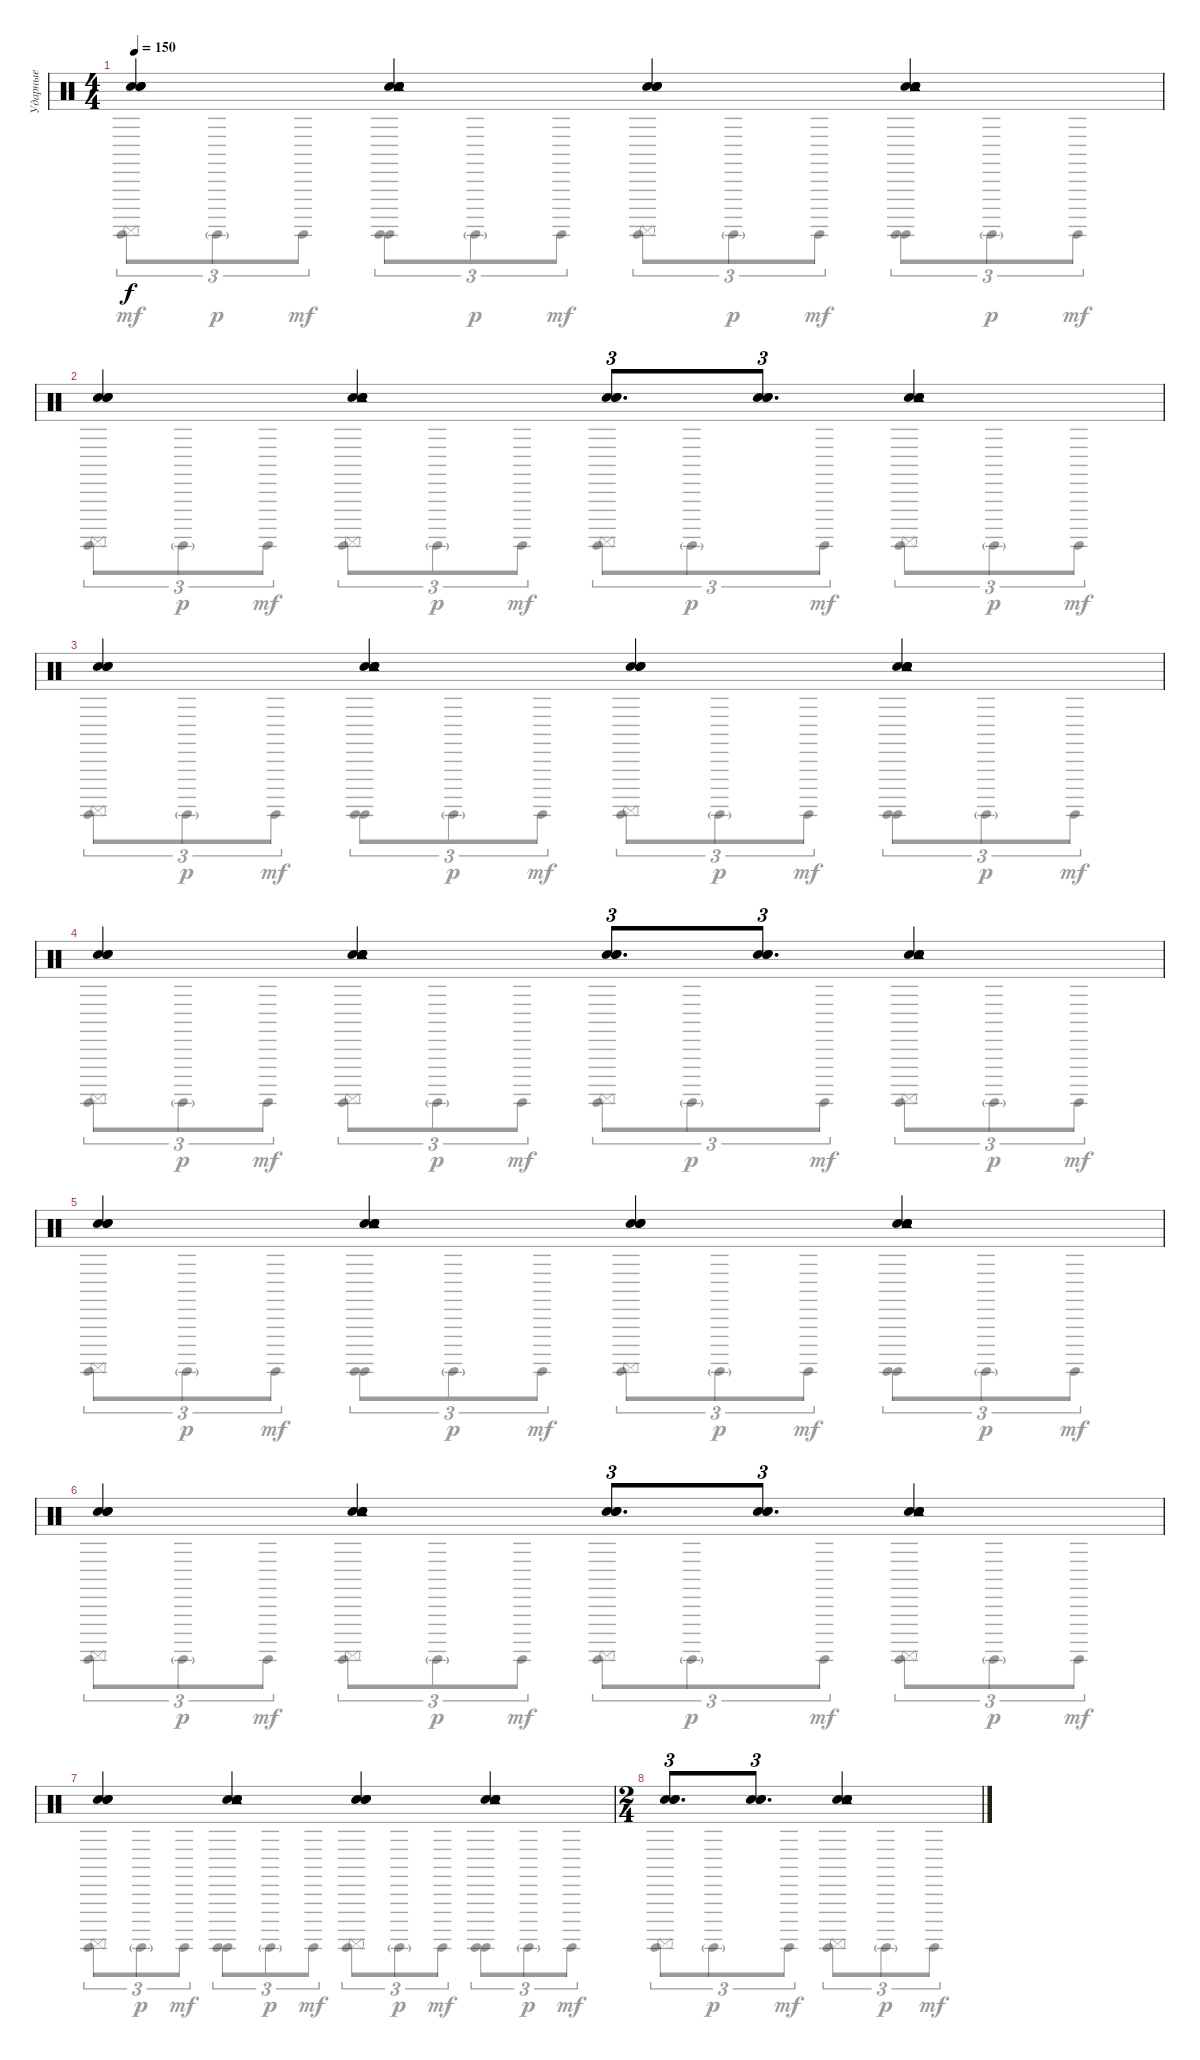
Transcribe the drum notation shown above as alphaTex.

\track ("Ударные" "Ударные") {instrument percussion}
\staff {score}
\articulation defaults
\voice
\ts (4 4)
\tempo 150
\clef neutral
\ks c
("Hand Clap (hit)" "Hand Clap (hit)" "Hand Clap (hit)").4{dy f} ("Hand Clap (hit)" "Hand Clap (hit)" "Hand Clap (hit)" "Tambourine (hit)" "Tambourine (hit)").4 ("Hand Clap (hit)" "Hand Clap (hit)" "Hand Clap (hit)").4 ("Hand Clap (hit)" "Hand Clap (hit)" "Hand Clap (hit)" "Tambourine (hit)" "Tambourine (hit)").4 |
("Hand Clap (hit)" "Hand Clap (hit)" "Hand Clap (hit)").4 ("Hand Clap (hit)" "Hand Clap (hit)" "Hand Clap (hit)" "Tambourine (hit)" "Tambourine (hit)").4 ("Hand Clap (hit)" "Hand Clap (hit)" "Hand Clap (hit)").8{d tu (3 2)} ("Hand Clap (hit)" "Hand Clap (hit)" "Hand Clap (hit)").8{d tu (3 2)} ("Hand Clap (hit)" "Hand Clap (hit)" "Hand Clap (hit)" "Tambourine (hit)" "Tambourine (hit)").4 |
("Hand Clap (hit)" "Hand Clap (hit)" "Hand Clap (hit)").4 ("Hand Clap (hit)" "Hand Clap (hit)" "Hand Clap (hit)" "Tambourine (hit)" "Tambourine (hit)").4 ("Hand Clap (hit)" "Hand Clap (hit)" "Hand Clap (hit)").4 ("Hand Clap (hit)" "Hand Clap (hit)" "Hand Clap (hit)" "Tambourine (hit)" "Tambourine (hit)").4 |
("Hand Clap (hit)" "Hand Clap (hit)" "Hand Clap (hit)").4 ("Hand Clap (hit)" "Hand Clap (hit)" "Hand Clap (hit)" "Tambourine (hit)" "Tambourine (hit)").4 ("Hand Clap (hit)" "Hand Clap (hit)" "Hand Clap (hit)").8{d tu (3 2)} ("Hand Clap (hit)" "Hand Clap (hit)" "Hand Clap (hit)").8{d tu (3 2)} ("Hand Clap (hit)" "Hand Clap (hit)" "Hand Clap (hit)" "Tambourine (hit)" "Tambourine (hit)").4 |
("Hand Clap (hit)" "Hand Clap (hit)" "Hand Clap (hit)").4 ("Hand Clap (hit)" "Hand Clap (hit)" "Hand Clap (hit)" "Tambourine (hit)" "Tambourine (hit)").4 ("Hand Clap (hit)" "Hand Clap (hit)" "Hand Clap (hit)").4 ("Hand Clap (hit)" "Hand Clap (hit)" "Hand Clap (hit)" "Tambourine (hit)" "Tambourine (hit)").4 |
("Hand Clap (hit)" "Hand Clap (hit)" "Hand Clap (hit)").4 ("Hand Clap (hit)" "Hand Clap (hit)" "Hand Clap (hit)" "Tambourine (hit)" "Tambourine (hit)").4 ("Hand Clap (hit)" "Hand Clap (hit)" "Hand Clap (hit)").8{d tu (3 2)} ("Hand Clap (hit)" "Hand Clap (hit)" "Hand Clap (hit)").8{d tu (3 2)} ("Hand Clap (hit)" "Hand Clap (hit)" "Hand Clap (hit)" "Tambourine (hit)" "Tambourine (hit)").4 |
("Hand Clap (hit)" "Hand Clap (hit)" "Hand Clap (hit)").4 ("Hand Clap (hit)" "Hand Clap (hit)" "Hand Clap (hit)" "Tambourine (hit)" "Tambourine (hit)").4 ("Hand Clap (hit)" "Hand Clap (hit)" "Hand Clap (hit)").4 ("Hand Clap (hit)" "Hand Clap (hit)" "Hand Clap (hit)" "Tambourine (hit)" "Tambourine (hit)").4 |
\ts (2 4)
("Hand Clap (hit)" "Hand Clap (hit)" "Hand Clap (hit)").8{d tu (3 2)} ("Hand Clap (hit)" "Hand Clap (hit)" "Hand Clap (hit)").8{d tu (3 2)} ("Hand Clap (hit)" "Hand Clap (hit)" "Hand Clap (hit)" "Tambourine (hit)" "Tambourine (hit)").4
\voice
\clef neutral
\ottava regular
\simile none
\ks c
("Surdo (hit)" "Surdo (mute)").8{tu (3 2) dy mf} "Surdo (hit)"{g}.8{tu (3 2) dy p} "Surdo (hit)".8{tu (3 2) dy mf} ("Surdo (hit)" "Surdo (hit)").8{tu (3 2)} "Surdo (hit)"{g}.8{tu (3 2) dy p} "Surdo (hit)".8{tu (3 2) dy mf} ("Surdo (hit)" "Surdo (mute)").8{tu (3 2)} "Surdo (hit)"{g}.8{tu (3 2) dy p} "Surdo (hit)".8{tu (3 2) dy mf} ("Surdo (hit)" "Surdo (hit)").8{tu (3 2)} "Surdo (hit)"{g}.8{tu (3 2) dy p} "Surdo (hit)".8{tu (3 2) dy mf} |
("Surdo (hit)" "Surdo (mute)").8{tu (3 2)} "Surdo (hit)"{g}.8{tu (3 2) dy p} "Surdo (hit)".8{tu (3 2) dy mf} ("Surdo (hit)" "Surdo (mute)").8{tu (3 2)} "Surdo (hit)"{g}.8{tu (3 2) dy p} "Surdo (hit)".8{tu (3 2) dy mf} ("Surdo (hit)" "Surdo (mute)").8{tu (3 2)} "Surdo (hit)"{g}.8{tu (3 2) dy p} "Surdo (hit)".8{tu (3 2) dy mf} ("Surdo (hit)" "Surdo (mute)").8{tu (3 2)} "Surdo (hit)"{g}.8{tu (3 2) dy p} "Surdo (hit)".8{tu (3 2) dy mf} |
("Surdo (hit)" "Surdo (mute)").8{tu (3 2)} "Surdo (hit)"{g}.8{tu (3 2) dy p} "Surdo (hit)".8{tu (3 2) dy mf} ("Surdo (hit)" "Surdo (hit)").8{tu (3 2)} "Surdo (hit)"{g}.8{tu (3 2) dy p} "Surdo (hit)".8{tu (3 2) dy mf} ("Surdo (hit)" "Surdo (mute)").8{tu (3 2)} "Surdo (hit)"{g}.8{tu (3 2) dy p} "Surdo (hit)".8{tu (3 2) dy mf} ("Surdo (hit)" "Surdo (hit)").8{tu (3 2)} "Surdo (hit)"{g}.8{tu (3 2) dy p} "Surdo (hit)".8{tu (3 2) dy mf} |
("Surdo (hit)" "Surdo (mute)").8{tu (3 2)} "Surdo (hit)"{g}.8{tu (3 2) dy p} "Surdo (hit)".8{tu (3 2) dy mf} ("Surdo (hit)" "Surdo (mute)").8{tu (3 2)} "Surdo (hit)"{g}.8{tu (3 2) dy p} "Surdo (hit)".8{tu (3 2) dy mf} ("Surdo (hit)" "Surdo (mute)").8{tu (3 2)} "Surdo (hit)"{g}.8{tu (3 2) dy p} "Surdo (hit)".8{tu (3 2) dy mf} ("Surdo (hit)" "Surdo (mute)").8{tu (3 2)} "Surdo (hit)"{g}.8{tu (3 2) dy p} "Surdo (hit)".8{tu (3 2) dy mf} |
("Surdo (hit)" "Surdo (mute)").8{tu (3 2)} "Surdo (hit)"{g}.8{tu (3 2) dy p} "Surdo (hit)".8{tu (3 2) dy mf} ("Surdo (hit)" "Surdo (hit)").8{tu (3 2)} "Surdo (hit)"{g}.8{tu (3 2) dy p} "Surdo (hit)".8{tu (3 2) dy mf} ("Surdo (hit)" "Surdo (mute)").8{tu (3 2)} "Surdo (hit)"{g}.8{tu (3 2) dy p} "Surdo (hit)".8{tu (3 2) dy mf} ("Surdo (hit)" "Surdo (hit)").8{tu (3 2)} "Surdo (hit)"{g}.8{tu (3 2) dy p} "Surdo (hit)".8{tu (3 2) dy mf} |
("Surdo (hit)" "Surdo (mute)").8{tu (3 2)} "Surdo (hit)"{g}.8{tu (3 2) dy p} "Surdo (hit)".8{tu (3 2) dy mf} ("Surdo (hit)" "Surdo (mute)").8{tu (3 2)} "Surdo (hit)"{g}.8{tu (3 2) dy p} "Surdo (hit)".8{tu (3 2) dy mf} ("Surdo (hit)" "Surdo (mute)").8{tu (3 2)} "Surdo (hit)"{g}.8{tu (3 2) dy p} "Surdo (hit)".8{tu (3 2) dy mf} ("Surdo (hit)" "Surdo (mute)").8{tu (3 2)} "Surdo (hit)"{g}.8{tu (3 2) dy p} "Surdo (hit)".8{tu (3 2) dy mf} |
("Surdo (hit)" "Surdo (mute)").8{tu (3 2)} "Surdo (hit)"{g}.8{tu (3 2) dy p} "Surdo (hit)".8{tu (3 2) dy mf} ("Surdo (hit)" "Surdo (hit)").8{tu (3 2)} "Surdo (hit)"{g}.8{tu (3 2) dy p} "Surdo (hit)".8{tu (3 2) dy mf} ("Surdo (hit)" "Surdo (mute)").8{tu (3 2)} "Surdo (hit)"{g}.8{tu (3 2) dy p} "Surdo (hit)".8{tu (3 2) dy mf} ("Surdo (hit)" "Surdo (hit)").8{tu (3 2)} "Surdo (hit)"{g}.8{tu (3 2) dy p} "Surdo (hit)".8{tu (3 2) dy mf} |
("Surdo (hit)" "Surdo (mute)").8{tu (3 2)} "Surdo (hit)"{g}.8{tu (3 2) dy p} "Surdo (hit)".8{tu (3 2) dy mf} ("Surdo (hit)" "Surdo (mute)").8{tu (3 2)} "Surdo (hit)"{g}.8{tu (3 2) dy p} "Surdo (hit)".8{tu (3 2) dy mf}
